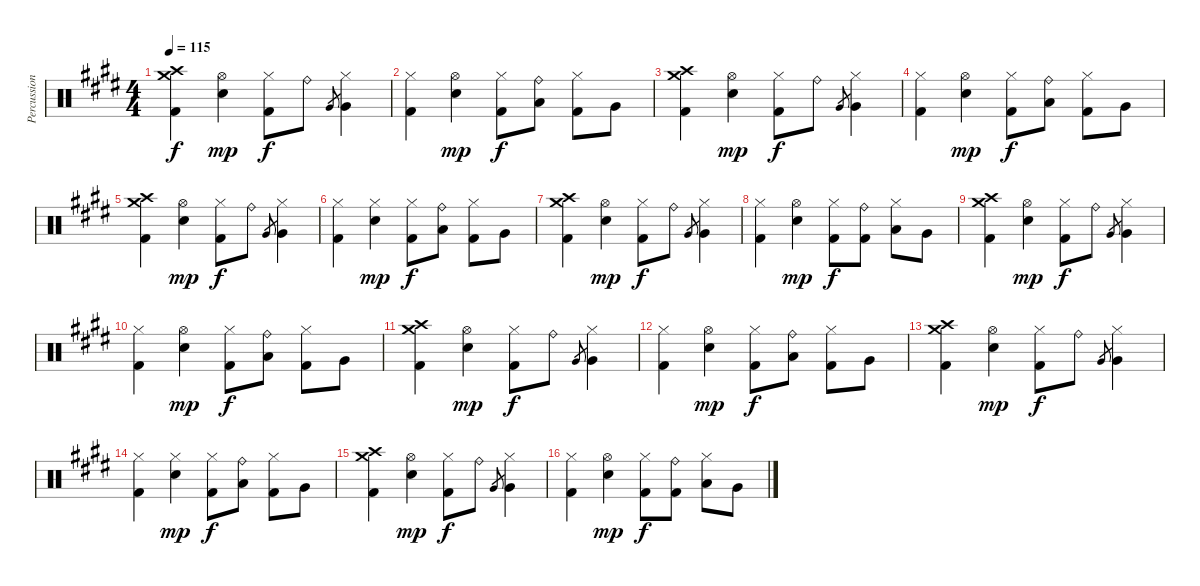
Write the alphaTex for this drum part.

\track ("Percussion" "Percussion") {instrument percussion}
\staff {score}
\articulation defaults
\ts (4 4)
\tempo 115
\clef neutral
\ks c#minor
("Crash high (hit)" "Crash medium (hit)" "Kick (hit) 2").4{dy f} ("Hi-Hat (open)" "Electric Snare (hit)").4{dy mp} ("Hi-Hat (closed)" "Kick (hit) 2").8{dy f} "Ride (bell)".8 "Very Low Tom (hit)".8{gr} ("Hi-Hat (closed)" "Very Low Tom (hit)").4 |
("Hi-Hat (closed)" "Kick (hit) 2").4 ("Hi-Hat (open)" "Electric Snare (hit)").4{dy mp} ("Hi-Hat (closed)" "Kick (hit) 2").8{dy f} ("Ride (bell)" "Low Tom (hit)").8 ("Hi-Hat (closed)" "Kick (hit) 2").8 "Very Low Tom (hit)".8 |
("Crash high (hit)" "Crash medium (hit)" "Kick (hit) 2").4 ("Hi-Hat (open)" "Electric Snare (hit)").4{dy mp} ("Hi-Hat (closed)" "Kick (hit) 2").8{dy f} "Ride (bell)".8 "Very Low Tom (hit)".8{gr} ("Hi-Hat (closed)" "Very Low Tom (hit)").4 |
("Hi-Hat (closed)" "Kick (hit) 2").4 ("Hi-Hat (open)" "Electric Snare (hit)").4{dy mp} ("Hi-Hat (closed)" "Kick (hit) 2").8{dy f} ("Ride (bell)" "Low Tom (hit)").8 ("Hi-Hat (closed)" "Kick (hit) 2").8 "Very Low Tom (hit)".8 |
("Crash high (hit)" "Crash medium (hit)" "Kick (hit) 2").4 ("Hi-Hat (open)" "Electric Snare (hit)").4{dy mp} ("Hi-Hat (closed)" "Kick (hit) 2").8{dy f} "Ride (bell)".8 "Very Low Tom (hit)".8{gr} ("Hi-Hat (closed)" "Very Low Tom (hit)").4 |
("Hi-Hat (closed)" "Kick (hit) 2").4 ("Hi-Hat (closed)" "Electric Snare (hit)").4{dy mp} ("Hi-Hat (closed)" "Kick (hit) 2").8{dy f} ("Ride (bell)" "Low Tom (hit)").8 ("Hi-Hat (closed)" "Kick (hit) 2").8 "Very Low Tom (hit)".8 |
("Crash high (hit)" "Crash medium (hit)" "Kick (hit) 2").4 ("Hi-Hat (open)" "Electric Snare (hit)").4{dy mp} ("Hi-Hat (closed)" "Kick (hit) 2").8{dy f} "Ride (bell)".8 "Very Low Tom (hit)".8{gr} ("Hi-Hat (closed)" "Very Low Tom (hit)").4 |
("Hi-Hat (closed)" "Kick (hit) 2").4 ("Hi-Hat (open)" "Electric Snare (hit)").4{dy mp} ("Hi-Hat (closed)" "Kick (hit) 2").8{dy f} ("Ride (bell)" "Kick (hit) 2").8 ("Hi-Hat (closed)" "Low Tom (hit)").8 "Very Low Tom (hit)".8 |
("Crash high (hit)" "Crash medium (hit)" "Kick (hit) 2").4 ("Hi-Hat (open)" "Electric Snare (hit)").4{dy mp} ("Hi-Hat (closed)" "Kick (hit) 2").8{dy f} "Ride (bell)".8 "Very Low Tom (hit)".8{gr} ("Hi-Hat (closed)" "Very Low Tom (hit)").4 |
("Hi-Hat (closed)" "Kick (hit) 2").4 ("Hi-Hat (open)" "Electric Snare (hit)").4{dy mp} ("Hi-Hat (closed)" "Kick (hit) 2").8{dy f} ("Ride (bell)" "Low Tom (hit)").8 ("Hi-Hat (closed)" "Kick (hit) 2").8 "Very Low Tom (hit)".8 |
("Crash high (hit)" "Crash medium (hit)" "Kick (hit) 2").4 ("Hi-Hat (open)" "Electric Snare (hit)").4{dy mp} ("Hi-Hat (closed)" "Kick (hit) 2").8{dy f} "Ride (bell)".8 "Very Low Tom (hit)".8{gr} ("Hi-Hat (closed)" "Very Low Tom (hit)").4 |
("Hi-Hat (closed)" "Kick (hit) 2").4 ("Hi-Hat (open)" "Electric Snare (hit)").4{dy mp} ("Hi-Hat (closed)" "Kick (hit) 2").8{dy f} ("Ride (bell)" "Low Tom (hit)").8 ("Hi-Hat (closed)" "Kick (hit) 2").8 "Very Low Tom (hit)".8 |
("Crash high (hit)" "Crash medium (hit)" "Kick (hit) 2").4 ("Hi-Hat (open)" "Electric Snare (hit)").4{dy mp} ("Hi-Hat (closed)" "Kick (hit) 2").8{dy f} "Ride (bell)".8 "Very Low Tom (hit)".8{gr} ("Hi-Hat (closed)" "Very Low Tom (hit)").4 |
("Hi-Hat (closed)" "Kick (hit) 2").4 ("Hi-Hat (closed)" "Electric Snare (hit)").4{dy mp} ("Hi-Hat (closed)" "Kick (hit) 2").8{dy f} ("Ride (bell)" "Low Tom (hit)").8 ("Hi-Hat (closed)" "Kick (hit) 2").8 "Very Low Tom (hit)".8 |
("Crash high (hit)" "Crash medium (hit)" "Kick (hit) 2").4 ("Hi-Hat (open)" "Electric Snare (hit)").4{dy mp} ("Hi-Hat (closed)" "Kick (hit) 2").8{dy f} "Ride (bell)".8 "Very Low Tom (hit)".8{gr} ("Hi-Hat (closed)" "Very Low Tom (hit)").4 |
("Hi-Hat (closed)" "Kick (hit) 2").4 ("Hi-Hat (open)" "Electric Snare (hit)").4{dy mp} ("Hi-Hat (closed)" "Kick (hit) 2").8{dy f} ("Ride (bell)" "Kick (hit) 2").8 ("Hi-Hat (closed)" "Low Tom (hit)").8 "Very Low Tom (hit)".8
